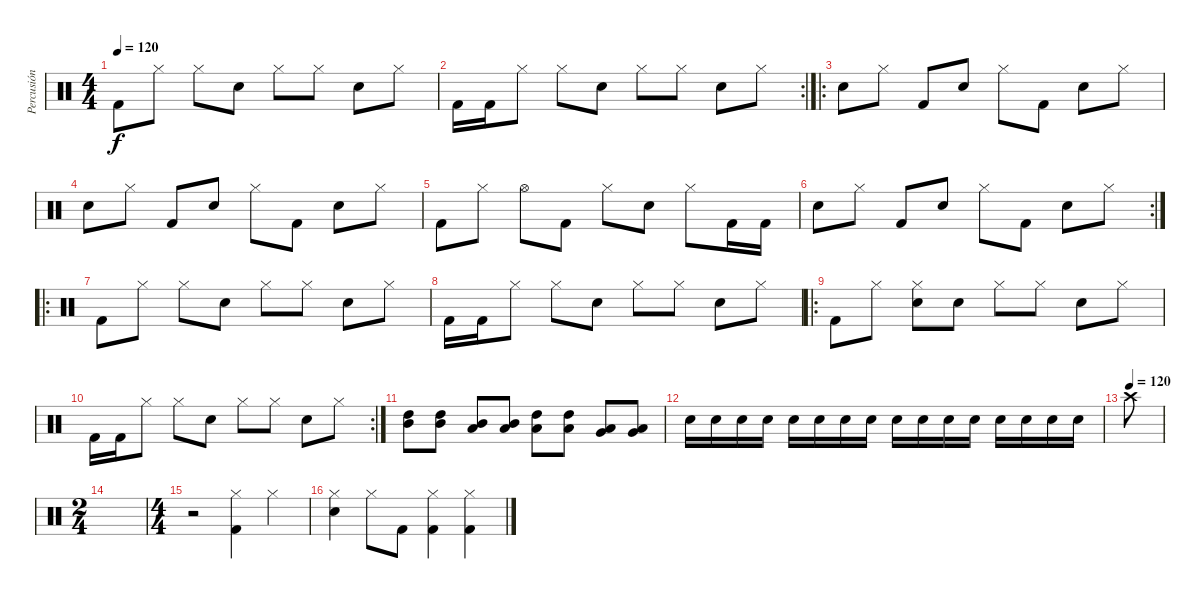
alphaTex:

\track ("Percusión" "Percusión") {instrument percussion}
\staff {score}
\articulation defaults
\ts (4 4)
\tempo 120
\clef neutral
\ks c "Kick (hit) 2".8{dy f} "Hi-Hat (closed)".8 "Hi-Hat (closed)".8 "Snare (hit) 2".8 "Hi-Hat (closed)".8 "Hi-Hat (closed)".8 "Snare (hit) 2".8 "Hi-Hat (closed)".8
|
\rc 2 "Kick (hit) 2".16 "Kick (hit) 2".16 "Hi-Hat (closed)".8 "Hi-Hat (closed)".8 "Snare (hit) 2".8 "Hi-Hat (closed)".8 "Hi-Hat (closed)".8 "Snare (hit) 2".8 "Hi-Hat (closed)".8
|
\ro "Snare (hit) 2".8 "Hi-Hat (closed)".8 "Kick (hit) 2".8 "Snare (hit) 2".8 "Hi-Hat (closed)".8 "Kick (hit) 2".8 "Snare (hit) 2".8 "Hi-Hat (closed)".8
|
"Snare (hit) 2".8 "Hi-Hat (closed)".8 "Kick (hit) 2".8 "Snare (hit) 2".8 "Hi-Hat (closed)".8 "Kick (hit) 2".8 "Snare (hit) 2".8 "Hi-Hat (closed)".8 |
"Kick (hit) 2".8 "Hi-Hat (closed)".8 "Hi-Hat (open)".8 "Kick (hit) 2".8 "Hi-Hat (closed)".8 "Snare (hit) 2".8 "Hi-Hat (closed)".8 "Kick (hit) 2".16 "Kick (hit) 2".16 |
\rc 2 "Snare (hit) 2".8 "Hi-Hat (closed)".8 "Kick (hit) 2".8 "Snare (hit) 2".8 "Hi-Hat (closed)".8 "Kick (hit) 2".8 "Snare (hit) 2".8 "Hi-Hat (closed)".8
|
\ro "Kick (hit) 2".8 "Hi-Hat (closed)".8 "Hi-Hat (closed)".8 "Snare (hit) 2".8 "Hi-Hat (closed)".8 "Hi-Hat (closed)".8 "Snare (hit) 2".8 "Hi-Hat (closed)".8
|
"Kick (hit) 2".16 "Kick (hit) 2".16 "Hi-Hat (closed)".8 "Hi-Hat (closed)".8 "Snare (hit) 2".8 "Hi-Hat (closed)".8 "Hi-Hat (closed)".8 "Snare (hit) 2".8 "Hi-Hat (closed)".8 |
\ro "Kick (hit) 2".8 "Hi-Hat (closed)".8
("Hi-Hat (closed)" "Snare (hit) 2").8 "Snare (hit) 2".8 "Hi-Hat (closed)".8 "Hi-Hat (closed)".8 "Snare (hit) 2".8 "Hi-Hat (closed)".8 |
\rc 2 "Kick (hit) 2".16 "Kick (hit) 2".16 "Hi-Hat (closed)".8 "Hi-Hat (closed)".8 "Snare (hit) 2".8 "Hi-Hat (closed)".8 "Hi-Hat (closed)".8 "Snare (hit) 2".8 "Hi-Hat (closed)".8
|
("High Tom (hit)" "Mid Tom (hit)").8 ("High Tom (hit)" "Mid Tom (hit)").8 ("Low Floor Tom (hit)" "Mid Tom (hit)").8 ("Low Floor Tom (hit)" "Mid Tom (hit)").8 ("Low Floor Tom (hit)" "High Tom (hit)").8 ("Low Floor Tom (hit)" "High Tom (hit)").8 ("Very Low Tom (hit)" "Low Floor Tom (hit)").8 ("Very Low Tom (hit)" "Low Floor Tom (hit)").8 |
"Snare (hit) 2".16 "Snare (hit) 2".16 "Snare (hit) 2".16 "Snare (hit) 2".16 "Snare (hit) 2".16 "Snare (hit) 2".16 "Snare (hit) 2".16 "Snare (hit) 2".16 "Snare (hit) 2".16 "Snare (hit) 2".16 "Snare (hit) 2".16 "Snare (hit) 2".16 "Snare (hit) 2".16 "Snare (hit) 2".16 "Snare (hit) 2".16 "Snare (hit) 2".16 |
\tempo (120)
"Crash high (hit)".8 |
\ts (2 4)
|
\ts (4 4)
r.2 ("Hi-Hat (closed)" "Kick (hit) 2").4 "Hi-Hat (closed)".4 |
("Hi-Hat (closed)" "Snare (hit) 2").4 "Hi-Hat (closed)".8 "Kick (hit) 2".8 ("Hi-Hat (closed)" "Kick (hit) 2").4 ("Hi-Hat (closed)" "Kick (hit) 2").4
